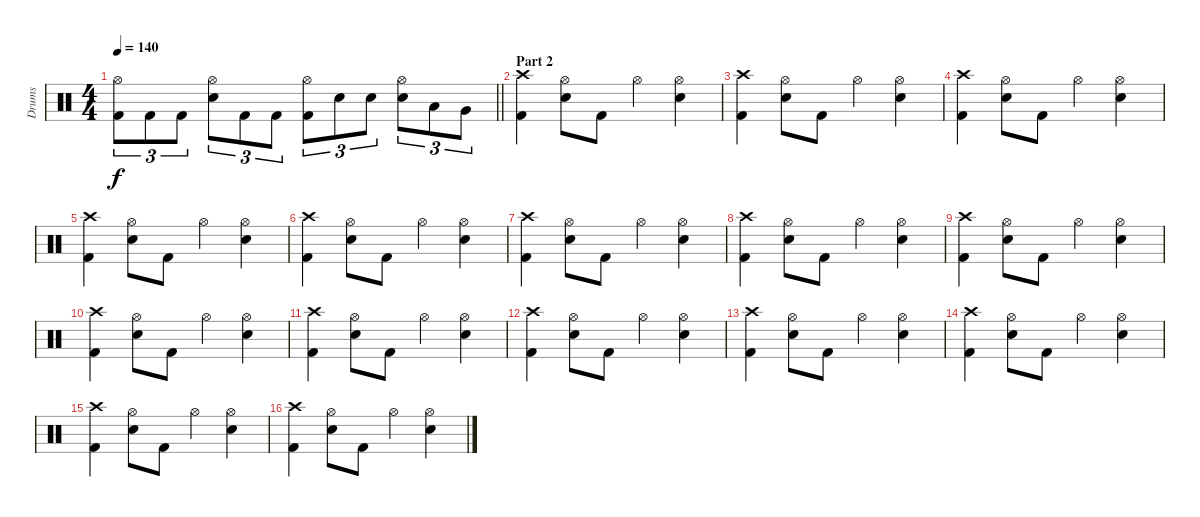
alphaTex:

\track ("Drums" "Drums") {instrument percussion}
\staff {score}
\articulation defaults
\ts (4 4)
\tempo 140
\clef neutral
\barLineRight lightlight
\ks c
("Kick (hit) 2" "Hi-Hat (open)").8{tu (3 2) dy f} "Kick (hit) 2".8{tu (3 2)} "Kick (hit) 2".8{tu (3 2)} ("Snare (hit) 2" "Hi-Hat (open)").8{tu (3 2)} "Kick (hit) 2".8{tu (3 2)} "Kick (hit) 2".8{tu (3 2)} ("Kick (hit) 2" "Hi-Hat (open)").8{tu (3 2)} "Snare (hit) 2".8{tu (3 2)} "Snare (hit) 2".8{tu (3 2)} ("Snare (hit) 2" "Hi-Hat (open)").8{tu (3 2)} "Low Tom (hit)".8{tu (3 2)} "Very Low Tom (hit)".8{tu (3 2)} |
\section ("" "Part 2")
("Kick (hit) 2" "Crash high (hit)").4 ("Snare (hit) 2" "Hi-Hat (open)").8 "Kick (hit) 2".8 "Hi-Hat (open)".4 ("Snare (hit) 2" "Hi-Hat (open)").4 |
("Kick (hit) 2" "Crash high (hit)").4 ("Snare (hit) 2" "Hi-Hat (open)").8 "Kick (hit) 2".8 "Hi-Hat (open)".4 ("Snare (hit) 2" "Hi-Hat (open)").4 |
("Kick (hit) 2" "Crash high (hit)").4 ("Snare (hit) 2" "Hi-Hat (open)").8 "Kick (hit) 2".8 "Hi-Hat (open)".4 ("Snare (hit) 2" "Hi-Hat (open)").4 |
("Kick (hit) 2" "Crash high (hit)").4 ("Snare (hit) 2" "Hi-Hat (open)").8 "Kick (hit) 2".8 "Hi-Hat (open)".4 ("Snare (hit) 2" "Hi-Hat (open)").4 |
("Kick (hit) 2" "Crash high (hit)").4 ("Snare (hit) 2" "Hi-Hat (open)").8 "Kick (hit) 2".8 "Hi-Hat (open)".4 ("Snare (hit) 2" "Hi-Hat (open)").4 |
("Kick (hit) 2" "Crash high (hit)").4 ("Snare (hit) 2" "Hi-Hat (open)").8 "Kick (hit) 2".8 "Hi-Hat (open)".4 ("Snare (hit) 2" "Hi-Hat (open)").4 |
("Kick (hit) 2" "Crash high (hit)").4 ("Snare (hit) 2" "Hi-Hat (open)").8 "Kick (hit) 2".8 "Hi-Hat (open)".4 ("Snare (hit) 2" "Hi-Hat (open)").4 |
("Kick (hit) 2" "Crash high (hit)").4 ("Snare (hit) 2" "Hi-Hat (open)").8 "Kick (hit) 2".8 "Hi-Hat (open)".4 ("Snare (hit) 2" "Hi-Hat (open)").4 |
("Kick (hit) 2" "Crash high (hit)").4 ("Snare (hit) 2" "Hi-Hat (open)").8 "Kick (hit) 2".8 "Hi-Hat (open)".4 ("Snare (hit) 2" "Hi-Hat (open)").4 |
("Kick (hit) 2" "Crash high (hit)").4 ("Snare (hit) 2" "Hi-Hat (open)").8 "Kick (hit) 2".8 "Hi-Hat (open)".4 ("Snare (hit) 2" "Hi-Hat (open)").4 |
("Kick (hit) 2" "Crash high (hit)").4 ("Snare (hit) 2" "Hi-Hat (open)").8 "Kick (hit) 2".8 "Hi-Hat (open)".4 ("Snare (hit) 2" "Hi-Hat (open)").4 |
("Kick (hit) 2" "Crash high (hit)").4 ("Snare (hit) 2" "Hi-Hat (open)").8 "Kick (hit) 2".8 "Hi-Hat (open)".4 ("Snare (hit) 2" "Hi-Hat (open)").4 |
("Kick (hit) 2" "Crash high (hit)").4 ("Snare (hit) 2" "Hi-Hat (open)").8 "Kick (hit) 2".8 "Hi-Hat (open)".4 ("Snare (hit) 2" "Hi-Hat (open)").4 |
("Kick (hit) 2" "Crash high (hit)").4 ("Snare (hit) 2" "Hi-Hat (open)").8 "Kick (hit) 2".8 "Hi-Hat (open)".4 ("Snare (hit) 2" "Hi-Hat (open)").4 |
("Kick (hit) 2" "Crash high (hit)").4 ("Snare (hit) 2" "Hi-Hat (open)").8 "Kick (hit) 2".8 "Hi-Hat (open)".4 ("Snare (hit) 2" "Hi-Hat (open)").4
